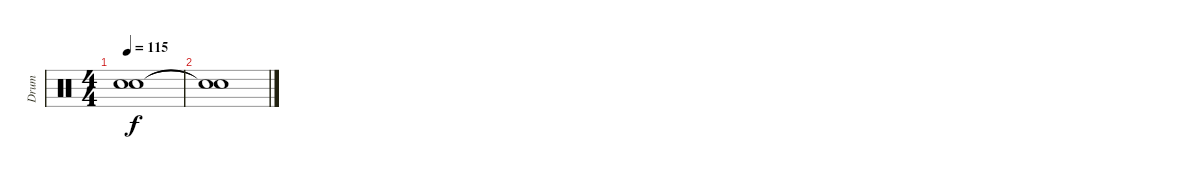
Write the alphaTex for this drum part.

\track ("Drum" "Drum") {instrument percussion}
\staff {score}
\articulation defaults
\ts (4 4)
\tempo 115
\clef neutral
\ks c
("Snare (hit)"{t} "Snare (hit)"{t}).1{dy f} |
("Snare (hit)"{t} "Snare (hit)"{t}).1
